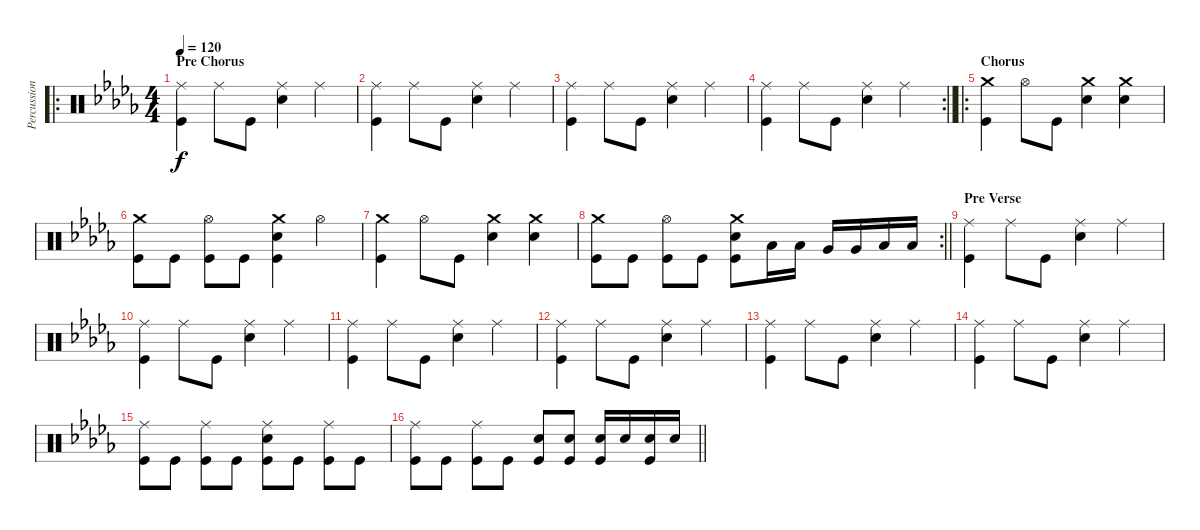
\track ("Percussion" "Percussion") {instrument percussion}
\staff {score}
\articulation defaults
\ro
\ts (4 4)
\section ("" "Pre Chorus")
\tempo 120
\clef neutral
\ks db
("Ride (middle)" "Kick (hit)").4{dy f} "Ride (middle)".8 "Kick (hit)".8 ("Ride (middle)" "Snare (hit) 2").4 "Ride (middle)".4 |
("Ride (middle)" "Kick (hit)").4 "Ride (middle)".8 "Kick (hit)".8 ("Ride (middle)" "Snare (hit) 2").4 "Ride (middle)".4 |
("Ride (middle)" "Kick (hit)").4 "Ride (middle)".8 "Kick (hit)".8 ("Ride (middle)" "Snare (hit) 2").4 "Ride (middle)".4 |
\rc 2
\barLineRight lightlight
("Ride (middle)" "Kick (hit)").4 "Ride (middle)".8 "Kick (hit)".8 ("Ride (middle)" "Snare (hit) 2").4 "Ride (middle)".4 |
\ro
\section ("" "Chorus")
("Crash medium (hit)" "Kick (hit)").4 "Hi-Hat (open)".8 "Kick (hit)".8 ("Crash medium (hit)" "Snare (hit) 2").4 ("Crash medium (hit)" "Snare (hit) 2").4 |
("Crash medium (hit)" "Kick (hit)").8 "Kick (hit)".8 ("Hi-Hat (open)" "Kick (hit)").8 "Kick (hit)".8 ("Crash medium (hit)" "Snare (hit) 2" "Kick (hit)").4 "Hi-Hat (open)".4 |
("Crash medium (hit)" "Kick (hit)").4 "Hi-Hat (open)".8 "Kick (hit)".8 ("Crash medium (hit)" "Snare (hit) 2").4 ("Crash medium (hit)" "Snare (hit) 2").4 |
\rc 2
\barLineRight lightlight
("Crash medium (hit)" "Kick (hit)").8 "Kick (hit)".8 ("Hi-Hat (open)" "Kick (hit)").8 "Kick (hit)".8 ("Crash medium (hit)" "Snare (hit) 2" "Kick (hit)").8 "Low Tom (hit)".16 "Low Tom (hit)".16 "Very Low Tom (hit)".16 "Very Low Tom (hit)".16 "Low Floor Tom (hit)".16 "Low Floor Tom (hit)".16 |
\section ("" "Pre Verse")
("Ride (middle)" "Kick (hit)").4 "Ride (middle)".8 "Kick (hit)".8 ("Ride (middle)" "Snare (hit) 2").4 "Ride (middle)".4 |
("Ride (middle)" "Kick (hit)").4 "Ride (middle)".8 "Kick (hit)".8 ("Ride (middle)" "Snare (hit) 2").4 "Ride (middle)".4 |
("Ride (middle)" "Kick (hit)").4 "Ride (middle)".8 "Kick (hit)".8 ("Ride (middle)" "Snare (hit) 2").4 "Ride (middle)".4 |
("Ride (middle)" "Kick (hit)").4 "Ride (middle)".8 "Kick (hit)".8 ("Ride (middle)" "Snare (hit) 2").4 "Ride (middle)".4 |
("Ride (middle)" "Kick (hit)").4 "Ride (middle)".8 "Kick (hit)".8 ("Ride (middle)" "Snare (hit) 2").4 "Ride (middle)".4 |
("Ride (middle)" "Kick (hit)").4 "Ride (middle)".8 "Kick (hit)".8 ("Ride (middle)" "Snare (hit) 2").4 "Ride (middle)".4 |
("Ride (middle)" "Kick (hit)").8 "Kick (hit)".8 ("Ride (middle)" "Kick (hit)").8 "Kick (hit)".8 ("Ride (middle)" "Snare (hit) 2" "Kick (hit)").8 "Kick (hit)".8 ("Ride (middle)" "Kick (hit)").8 "Kick (hit)".8 |
\barLineRight lightlight
("Ride (middle)" "Kick (hit)").8 "Kick (hit)".8 ("Ride (middle)" "Kick (hit)").8 "Kick (hit)".8 ("Snare (hit) 2" "Kick (hit)").8 ("Snare (hit) 2" "Kick (hit)").8 ("Snare (hit) 2" "Kick (hit)").16 "Snare (hit) 2".16 ("Snare (hit) 2" "Kick (hit)").16 "Snare (hit) 2".16
